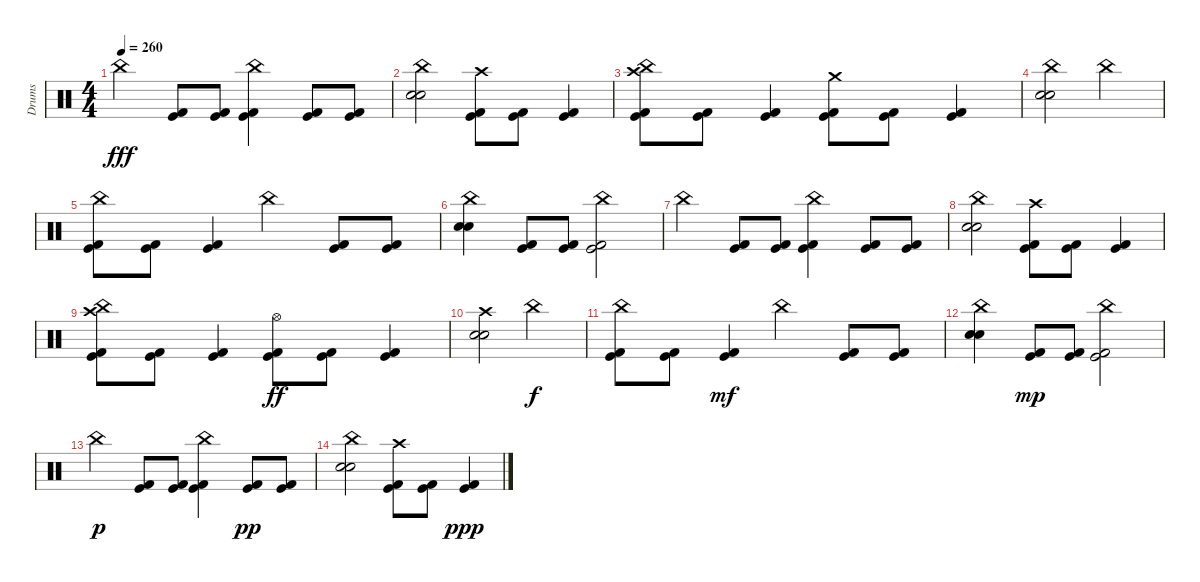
\track ("Drums" "Drums") {instrument percussion}
\staff {score}
\articulation defaults
\ts (4 4)
\tempo 260
\clef neutral
\ks c "China (hit)".4{dy fff}
("Kick (hit)" "Kick (hit) 2").8 ("Kick (hit)" "Kick (hit) 2").8 ("Kick (hit)" "Kick (hit) 2" "China (hit)").4 ("Kick (hit)" "Kick (hit) 2").8 ("Kick (hit)" "Kick (hit) 2").8 |
("Electric Snare (hit)" "Electric Snare (hit)" "China (hit)").2 ("Kick (hit)" "Kick (hit) 2" "Crash high (hit)").8 ("Kick (hit)" "Kick (hit) 2").8 ("Kick (hit)" "Kick (hit) 2").4 |
("Kick (hit)" "Kick (hit) 2" "China (hit)" "Crash high (hit)").8 ("Kick (hit)" "Kick (hit) 2").8 ("Kick (hit)" "Kick (hit) 2").4 ("Kick (hit)" "Kick (hit) 2" "Crash medium (hit)").8 ("Kick (hit)" "Kick (hit) 2").8 ("Kick (hit)" "Kick (hit) 2").4 |
("Electric Snare (hit)" "Electric Snare (hit)" "China (hit)").2 "China (hit)".2 |
("Kick (hit)" "Kick (hit) 2" "China (hit)").8 ("Kick (hit)" "Kick (hit) 2").8 ("Kick (hit)" "Kick (hit) 2").4 "China (hit)".4 ("Kick (hit)" "Kick (hit) 2").8 ("Kick (hit)" "Kick (hit) 2").8 |
("Electric Snare (hit)" "Electric Snare (hit)" "China (hit)").4 ("Kick (hit)" "Kick (hit) 2").8 ("Kick (hit)" "Kick (hit) 2").8 ("Kick (hit)" "Kick (hit) 2" "China (hit)").2 |
"China (hit)".4 ("Kick (hit)" "Kick (hit) 2").8 ("Kick (hit)" "Kick (hit) 2").8 ("Kick (hit)" "Kick (hit) 2" "China (hit)").4 ("Kick (hit)" "Kick (hit) 2").8 ("Kick (hit)" "Kick (hit) 2").8 |
("Electric Snare (hit)" "Electric Snare (hit)" "China (hit)").2 ("Kick (hit)" "Kick (hit) 2" "Crash high (hit)").8 ("Kick (hit)" "Kick (hit) 2").8 ("Kick (hit)" "Kick (hit) 2").4 |
("Kick (hit)" "Kick (hit) 2" "China (hit)" "Crash high (hit)").8 ("Kick (hit)" "Kick (hit) 2").8 ("Kick (hit)" "Kick (hit) 2").4 ("Kick (hit)" "Kick (hit) 2" "Hi-Hat (open)").8{dy ff} ("Kick (hit)" "Kick (hit) 2").8 ("Kick (hit)" "Kick (hit) 2").4 |
("Electric Snare (hit)" "Electric Snare (hit)" "Crash high (hit)").2 "China (hit)".2{dy f} |
("Kick (hit)" "Kick (hit) 2" "China (hit)").8 ("Kick (hit)" "Kick (hit) 2").8 ("Kick (hit)" "Kick (hit) 2").4{dy mf} "China (hit)".4 ("Kick (hit)" "Kick (hit) 2").8 ("Kick (hit)" "Kick (hit) 2").8 |
("Electric Snare (hit)" "Electric Snare (hit)" "China (hit)").4 ("Kick (hit)" "Kick (hit) 2").8{dy mp} ("Kick (hit)" "Kick (hit) 2").8 ("Kick (hit)" "Kick (hit) 2" "China (hit)").2 |
"China (hit)".4{dy p} ("Kick (hit)" "Kick (hit) 2").8 ("Kick (hit)" "Kick (hit) 2").8 ("Kick (hit)" "Kick (hit) 2" "China (hit)").4 ("Kick (hit)" "Kick (hit) 2").8{dy pp} ("Kick (hit)" "Kick (hit) 2").8 |
("Electric Snare (hit)" "Electric Snare (hit)" "China (hit)").2 ("Kick (hit)" "Kick (hit) 2" "Crash high (hit)").8 ("Kick (hit)" "Kick (hit) 2").8 ("Kick (hit)" "Kick (hit) 2").4{dy ppp}
